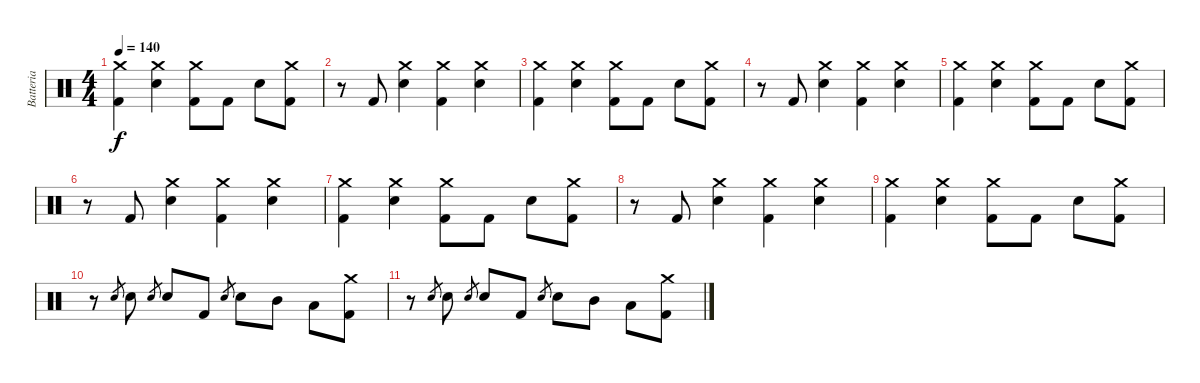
\track ("Batteria" "Batteria") {instrument percussion}
\staff {score}
\articulation defaults
\ts (4 4)
\tempo 140
\clef neutral
\ks c
("Crash medium (hit)" "Kick (hit) 2").4{dy f} ("Crash medium (hit)" "Snare (hit) 2").4 ("Crash medium (hit)" "Kick (hit) 2").8 "Kick (hit) 2".8 "Snare (hit) 2".8 ("Crash medium (hit)" "Kick (hit) 2").8 |
r.8 "Kick (hit) 2".8 ("Crash medium (hit)" "Snare (hit) 2").4 ("Crash medium (hit)" "Kick (hit) 2").4 ("Crash medium (hit)" "Snare (hit) 2").4 |
("Crash medium (hit)" "Kick (hit) 2").4 ("Crash medium (hit)" "Snare (hit) 2").4 ("Crash medium (hit)" "Kick (hit) 2").8 "Kick (hit) 2".8 "Snare (hit) 2".8 ("Crash medium (hit)" "Kick (hit) 2").8 |
r.8 "Kick (hit) 2".8 ("Crash medium (hit)" "Snare (hit) 2").4 ("Crash medium (hit)" "Kick (hit) 2").4 ("Crash medium (hit)" "Snare (hit) 2").4 |
("Crash medium (hit)" "Kick (hit) 2").4 ("Crash medium (hit)" "Snare (hit) 2").4 ("Crash medium (hit)" "Kick (hit) 2").8 "Kick (hit) 2".8 "Snare (hit) 2".8 ("Crash medium (hit)" "Kick (hit) 2").8 |
r.8 "Kick (hit) 2".8 ("Crash medium (hit)" "Snare (hit) 2").4 ("Crash medium (hit)" "Kick (hit) 2").4 ("Crash medium (hit)" "Snare (hit) 2").4 |
("Crash medium (hit)" "Kick (hit) 2").4 ("Crash medium (hit)" "Snare (hit) 2").4 ("Crash medium (hit)" "Kick (hit) 2").8 "Kick (hit) 2".8 "Snare (hit) 2".8 ("Crash medium (hit)" "Kick (hit) 2").8 |
r.8 "Kick (hit) 2".8 ("Crash medium (hit)" "Snare (hit) 2").4 ("Crash medium (hit)" "Kick (hit) 2").4 ("Crash medium (hit)" "Snare (hit) 2").4 |
("Crash medium (hit)" "Kick (hit) 2").4 ("Crash medium (hit)" "Snare (hit) 2").4 ("Crash medium (hit)" "Kick (hit) 2").8 "Kick (hit) 2".8 "Snare (hit) 2".8 ("Crash medium (hit)" "Kick (hit) 2").8 |
r.8 "Snare (hit) 2".8{gr} "Snare (hit) 2".8 "Snare (hit) 2".8{gr} "Snare (hit) 2".8 "Kick (hit) 2".8 "Snare (hit) 2".8{gr} "Snare (hit) 2".8 "Mid Tom (hit)".8 "Low Tom (hit)".8 ("Crash medium (hit)" "Kick (hit) 2").8 |
r.8 "Snare (hit) 2".8{gr} "Snare (hit) 2".8 "Snare (hit) 2".8{gr} "Snare (hit) 2".8 "Kick (hit) 2".8 "Snare (hit) 2".8{gr} "Snare (hit) 2".8 "Mid Tom (hit)".8 "Low Tom (hit)".8 ("Crash medium (hit)" "Kick (hit) 2").8
